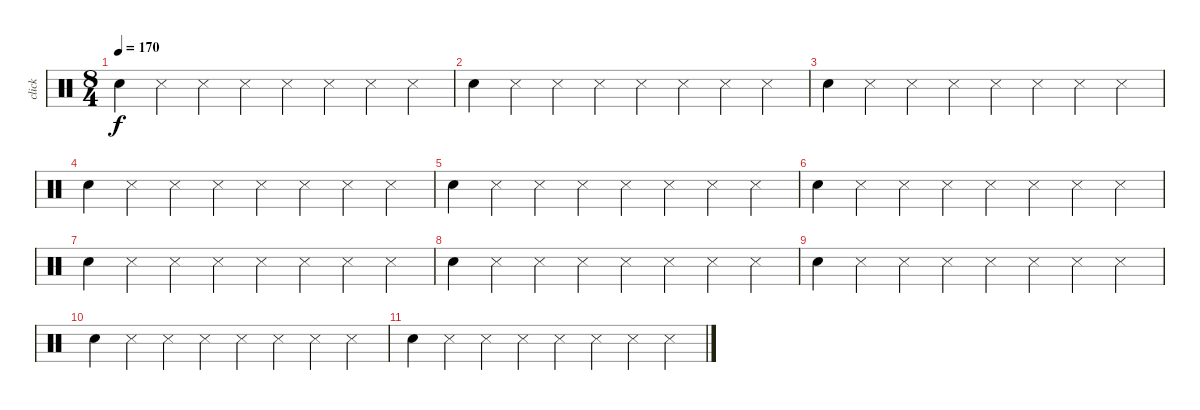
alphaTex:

\track ("click" "click") {mute instrument percussion}
\staff {score}
\articulation defaults
\ts (8 4)
\tempo 170
\clef neutral
\ks c "Metronome (bell)".4{dy f} "Metronome (hit)".4 "Metronome (hit)".4 "Metronome (hit)".4 "Metronome (hit)".4 "Metronome (hit)".4 "Metronome (hit)".4 "Metronome (hit)".4
|
"Metronome (bell)".4 "Metronome (hit)".4 "Metronome (hit)".4 "Metronome (hit)".4 "Metronome (hit)".4 "Metronome (hit)".4 "Metronome (hit)".4 "Metronome (hit)".4 |
"Metronome (bell)".4 "Metronome (hit)".4 "Metronome (hit)".4 "Metronome (hit)".4 "Metronome (hit)".4 "Metronome (hit)".4 "Metronome (hit)".4 "Metronome (hit)".4 |
"Metronome (bell)".4 "Metronome (hit)".4 "Metronome (hit)".4 "Metronome (hit)".4 "Metronome (hit)".4 "Metronome (hit)".4 "Metronome (hit)".4 "Metronome (hit)".4 |
"Metronome (bell)".4 "Metronome (hit)".4 "Metronome (hit)".4 "Metronome (hit)".4 "Metronome (hit)".4 "Metronome (hit)".4 "Metronome (hit)".4 "Metronome (hit)".4 |
"Metronome (bell)".4 "Metronome (hit)".4 "Metronome (hit)".4 "Metronome (hit)".4 "Metronome (hit)".4 "Metronome (hit)".4 "Metronome (hit)".4 "Metronome (hit)".4 |
"Metronome (bell)".4 "Metronome (hit)".4 "Metronome (hit)".4 "Metronome (hit)".4 "Metronome (hit)".4 "Metronome (hit)".4 "Metronome (hit)".4 "Metronome (hit)".4 |
"Metronome (bell)".4 "Metronome (hit)".4 "Metronome (hit)".4 "Metronome (hit)".4 "Metronome (hit)".4 "Metronome (hit)".4 "Metronome (hit)".4 "Metronome (hit)".4 |
"Metronome (bell)".4 "Metronome (hit)".4 "Metronome (hit)".4 "Metronome (hit)".4 "Metronome (hit)".4 "Metronome (hit)".4 "Metronome (hit)".4 "Metronome (hit)".4 |
"Metronome (bell)".4 "Metronome (hit)".4 "Metronome (hit)".4 "Metronome (hit)".4 "Metronome (hit)".4 "Metronome (hit)".4 "Metronome (hit)".4 "Metronome (hit)".4 |
"Metronome (bell)".4 "Metronome (hit)".4 "Metronome (hit)".4 "Metronome (hit)".4 "Metronome (hit)".4 "Metronome (hit)".4 "Metronome (hit)".4 "Metronome (hit)".4
